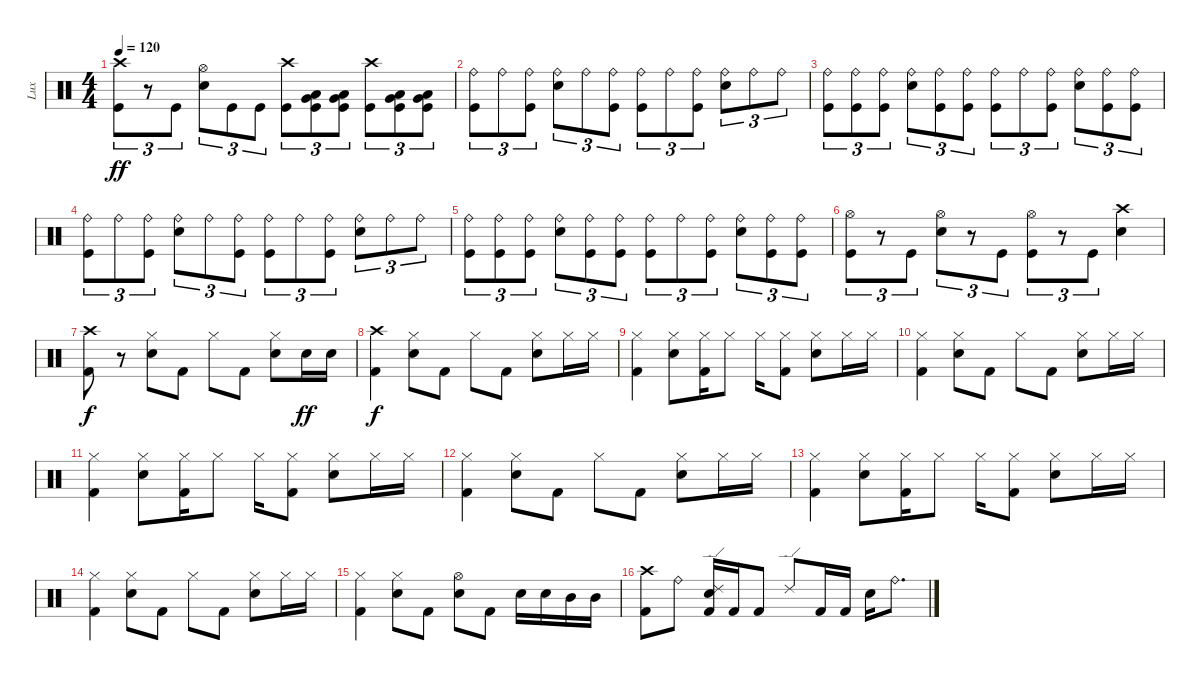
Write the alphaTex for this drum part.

\track ("Lux" "Lux") {instrument percussion bank 32}
\staff {score}
\articulation defaults
\ts (4 4)
\tempo 120
\clef neutral
\ks c
("Crash high (hit)" "Kick (hit)").8{tu (3 2) dy ff} r.8{tu (3 2)} "Kick (hit)".8{tu (3 2)} ("Hi-Hat (open)" "Snare (hit) 2").8{tu (3 2)} "Kick (hit)".8{tu (3 2)} "Kick (hit)".8{tu (3 2)} ("Crash high (hit)" "Kick (hit)").8{tu (3 2)} ("Low Floor Tom (hit)" "Very Low Tom (hit)" "Kick (hit)").8{tu (3 2)} ("Low Floor Tom (hit)" "Very Low Tom (hit)" "Kick (hit)").8{tu (3 2)} ("Crash high (hit)" "Kick (hit)").8{tu (3 2)} ("Low Floor Tom (hit)" "Very Low Tom (hit)" "Kick (hit)").8{tu (3 2)} ("Low Floor Tom (hit)" "Very Low Tom (hit)" "Kick (hit)").8{tu (3 2)} |
("Ride (bell)" "Kick (hit)").8{tu (3 2)} "Ride (bell)".8{tu (3 2)} ("Ride (bell)" "Kick (hit)").8{tu (3 2)} ("Ride (bell)" "Snare (hit) 2").8{tu (3 2)} "Ride (bell)".8{tu (3 2)} ("Ride (bell)" "Kick (hit)").8{tu (3 2)} ("Ride (bell)" "Kick (hit)").8{tu (3 2)} "Ride (bell)".8{tu (3 2)} ("Ride (bell)" "Kick (hit)").8{tu (3 2)} ("Ride (bell)" "Snare (hit) 2").8{tu (3 2)} "Ride (bell)".8{tu (3 2)} "Ride (bell)".8{tu (3 2)} |
("Ride (bell)" "Kick (hit)").8{tu (3 2)} ("Ride (bell)" "Kick (hit)").8{tu (3 2)} ("Ride (bell)" "Kick (hit)").8{tu (3 2)} ("Ride (bell)" "Snare (hit) 2").8{tu (3 2)} ("Ride (bell)" "Kick (hit)").8{tu (3 2)} ("Ride (bell)" "Kick (hit)").8{tu (3 2)} ("Ride (bell)" "Kick (hit)").8{tu (3 2)} "Ride (bell)".8{tu (3 2)} ("Ride (bell)" "Kick (hit)").8{tu (3 2)} ("Ride (bell)" "Snare (hit) 2").8{tu (3 2)} ("Ride (bell)" "Kick (hit)").8{tu (3 2)} ("Ride (bell)" "Kick (hit)").8{tu (3 2)} |
("Ride (bell)" "Kick (hit)").8{tu (3 2)} "Ride (bell)".8{tu (3 2)} ("Ride (bell)" "Kick (hit)").8{tu (3 2)} ("Ride (bell)" "Snare (hit) 2").8{tu (3 2)} "Ride (bell)".8{tu (3 2)} ("Ride (bell)" "Kick (hit)").8{tu (3 2)} ("Ride (bell)" "Kick (hit)").8{tu (3 2)} "Ride (bell)".8{tu (3 2)} ("Ride (bell)" "Kick (hit)").8{tu (3 2)} ("Ride (bell)" "Snare (hit) 2").8{tu (3 2)} "Ride (bell)".8{tu (3 2)} "Ride (bell)".8{tu (3 2)} |
("Ride (bell)" "Kick (hit)").8{tu (3 2)} ("Ride (bell)" "Kick (hit)").8{tu (3 2)} ("Ride (bell)" "Kick (hit)").8{tu (3 2)} ("Ride (bell)" "Snare (hit) 2").8{tu (3 2)} ("Ride (bell)" "Kick (hit)").8{tu (3 2)} ("Ride (bell)" "Kick (hit)").8{tu (3 2)} ("Ride (bell)" "Kick (hit)").8{tu (3 2)} "Ride (bell)".8{tu (3 2)} ("Ride (bell)" "Kick (hit)").8{tu (3 2)} ("Ride (bell)" "Snare (hit) 2").8{tu (3 2)} ("Ride (bell)" "Kick (hit)").8{tu (3 2)} ("Ride (bell)" "Kick (hit)").8{tu (3 2)} |
("Hi-Hat (open)" "Kick (hit)").8{tu (3 2)} r.8{tu (3 2)} "Kick (hit)".8{tu (3 2)} ("Hi-Hat (open)" "Snare (hit) 2").8{tu (3 2)} r.8{tu (3 2)} "Kick (hit)".8{tu (3 2)} ("Hi-Hat (open)" "Kick (hit)").8{tu (3 2)} r.8{tu (3 2)} "Kick (hit)".8{tu (3 2)} ("Crash high (hit)" "Snare (hit) 2").4 |
("Crash high (hit)" "Kick (hit) 2").8{dy f} r.8 ("Hi-Hat (closed)" "Snare (hit) 2").8 "Kick (hit) 2".8 "Hi-Hat (closed)".8 "Kick (hit) 2".8 ("Hi-Hat (closed)" "Snare (hit) 2").8 "Snare (hit) 2".16{dy ff} "Snare (hit) 2".16 |
("Crash high (hit)" "Kick (hit) 2").4{dy f} ("Hi-Hat (closed)" "Snare (hit) 2").8 "Kick (hit) 2".8 "Hi-Hat (closed)".8 "Kick (hit) 2".8 ("Hi-Hat (closed)" "Snare (hit) 2").8 "Hi-Hat (closed)".16 "Hi-Hat (closed)".16 |
("Hi-Hat (closed)" "Kick (hit) 2").4 ("Hi-Hat (closed)" "Snare (hit) 2").8 ("Hi-Hat (closed)" "Kick (hit) 2").16 "Hi-Hat (closed)".8 "Hi-Hat (closed)".16 ("Hi-Hat (closed)" "Kick (hit) 2").8 ("Hi-Hat (closed)" "Snare (hit) 2").8 "Hi-Hat (closed)".16 "Hi-Hat (closed)".16 |
("Hi-Hat (closed)" "Kick (hit) 2").4 ("Hi-Hat (closed)" "Snare (hit) 2").8 "Kick (hit) 2".8 "Hi-Hat (closed)".8 "Kick (hit) 2".8 ("Hi-Hat (closed)" "Snare (hit) 2").8 "Hi-Hat (closed)".16 "Hi-Hat (closed)".16 |
("Hi-Hat (closed)" "Kick (hit) 2").4 ("Hi-Hat (closed)" "Snare (hit) 2").8 ("Hi-Hat (closed)" "Kick (hit) 2").16 "Hi-Hat (closed)".8 "Hi-Hat (closed)".16 ("Hi-Hat (closed)" "Kick (hit) 2").8 ("Hi-Hat (closed)" "Snare (hit) 2").8 "Hi-Hat (closed)".16 "Hi-Hat (closed)".16 |
("Hi-Hat (closed)" "Kick (hit) 2").4 ("Hi-Hat (closed)" "Snare (hit) 2").8 "Kick (hit) 2".8 "Hi-Hat (closed)".8 "Kick (hit) 2".8 ("Hi-Hat (closed)" "Snare (hit) 2").8 "Hi-Hat (closed)".16 "Hi-Hat (closed)".16 |
("Hi-Hat (closed)" "Kick (hit) 2").4 ("Hi-Hat (closed)" "Snare (hit) 2").8 ("Hi-Hat (closed)" "Kick (hit) 2").16 "Hi-Hat (closed)".8 "Hi-Hat (closed)".16 ("Hi-Hat (closed)" "Kick (hit) 2").8 ("Hi-Hat (closed)" "Snare (hit) 2").8 "Hi-Hat (closed)".16 "Hi-Hat (closed)".16 |
("Hi-Hat (closed)" "Kick (hit) 2").4 ("Hi-Hat (closed)" "Snare (hit) 2").8 "Kick (hit) 2".8 "Hi-Hat (closed)".8 "Kick (hit) 2".8 ("Hi-Hat (closed)" "Snare (hit) 2").8 "Hi-Hat (closed)".16 "Hi-Hat (closed)".16 |
("Hi-Hat (closed)" "Kick (hit) 2").4 ("Hi-Hat (closed)" "Snare (hit) 2").8 "Kick (hit) 2".8 ("Hi-Hat (open)" "Snare (hit) 2").8 "Kick (hit) 2".8 "Snare (hit) 2".16 "Snare (hit) 2".16 "Mid Tom (hit)".16 "Mid Tom (hit)".16 |
("Crash high (hit)" "Kick (hit) 2").8 "Ride (bell)".8 ("Ride (edge) 2" "Snare (hit) 2" "Kick (hit) 2").16 "Kick (hit) 2".16 "Kick (hit) 2".8 "Ride (edge) 2".8 "Kick (hit) 2".16 "Kick (hit) 2".16 "Snare (hit) 2".16 "Ride (bell)".8{d}
